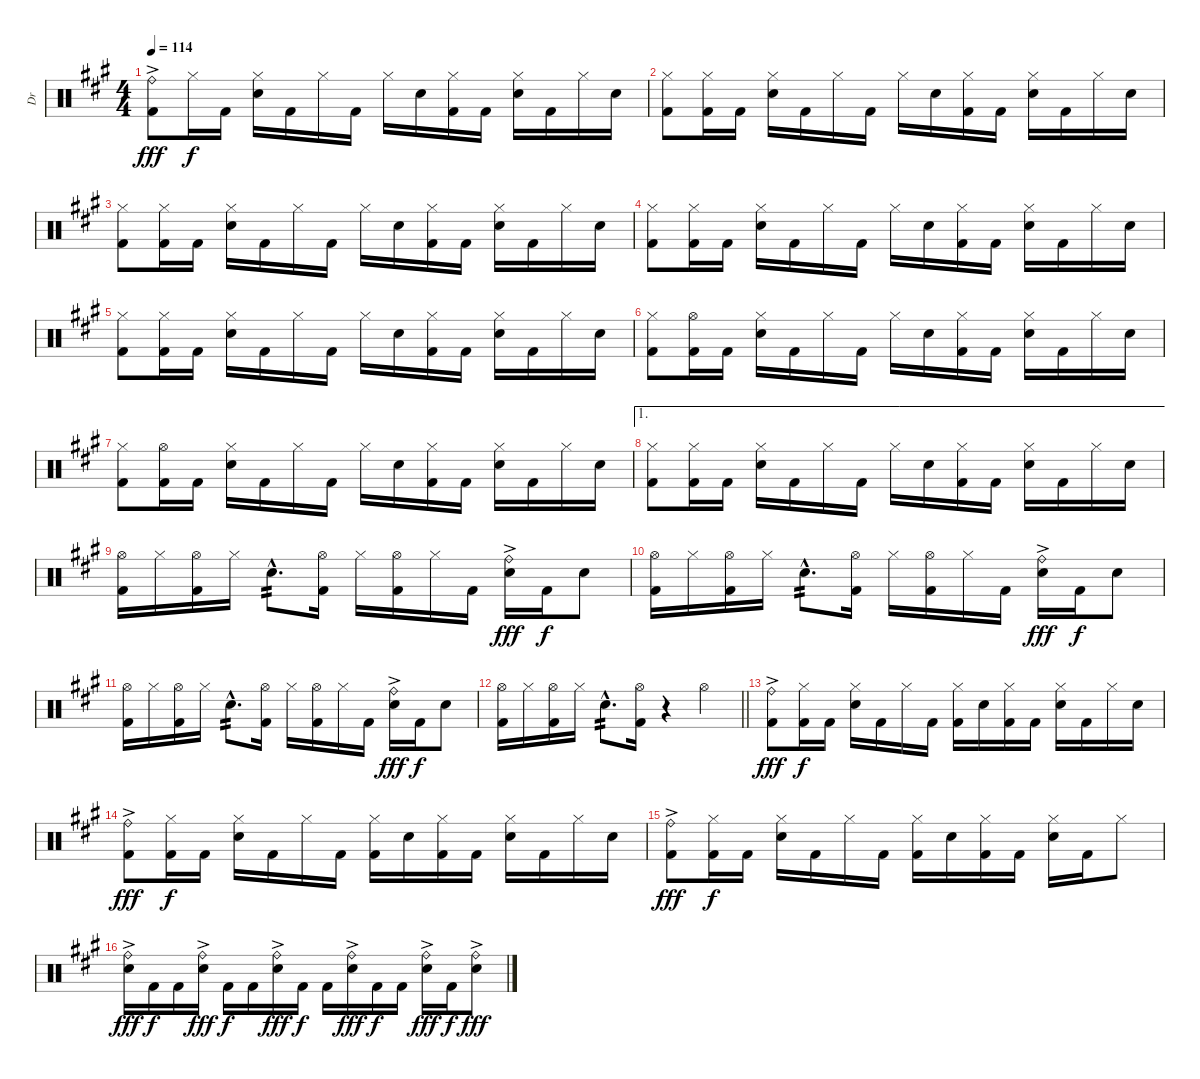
\track ("Dr" "Dr") {instrument percussion}
\staff {score}
\articulation defaults
\ts (4 4)
\tempo 114
\clef neutral
\ks a
("Ride (bell)"{ac} "Kick (hit) 2"{ac}).8{dy fff} "Hi-Hat (closed)".16{dy f} "Kick (hit) 2".16 ("Hi-Hat (closed)" "Electric Snare (hit)").16 "Kick (hit) 2".16 "Hi-Hat (closed)".16 "Kick (hit) 2".16 "Hi-Hat (closed)".16 "Electric Snare (hit)".16 ("Hi-Hat (closed)" "Kick (hit) 2").16 "Kick (hit) 2".16 ("Hi-Hat (closed)" "Electric Snare (hit)").16 "Kick (hit) 2".16 "Hi-Hat (closed)".16 "Electric Snare (hit)".16 |
("Hi-Hat (closed)" "Kick (hit) 2").8 ("Hi-Hat (closed)" "Kick (hit) 2").16 "Kick (hit) 2".16 ("Hi-Hat (closed)" "Electric Snare (hit)").16 "Kick (hit) 2".16 "Hi-Hat (closed)".16 "Kick (hit) 2".16 "Hi-Hat (closed)".16 "Electric Snare (hit)".16 ("Hi-Hat (closed)" "Kick (hit) 2").16 "Kick (hit) 2".16 ("Hi-Hat (closed)" "Electric Snare (hit)").16 "Kick (hit) 2".16 "Hi-Hat (closed)".16 "Electric Snare (hit)".16 |
("Hi-Hat (closed)" "Kick (hit) 2").8 ("Hi-Hat (closed)" "Kick (hit) 2").16 "Kick (hit) 2".16 ("Hi-Hat (closed)" "Electric Snare (hit)").16 "Kick (hit) 2".16 "Hi-Hat (closed)".16 "Kick (hit) 2".16 "Hi-Hat (closed)".16 "Electric Snare (hit)".16 ("Hi-Hat (closed)" "Kick (hit) 2").16 "Kick (hit) 2".16 ("Hi-Hat (closed)" "Electric Snare (hit)").16 "Kick (hit) 2".16 "Hi-Hat (closed)".16 "Electric Snare (hit)".16 |
("Hi-Hat (closed)" "Kick (hit) 2").8 ("Hi-Hat (closed)" "Kick (hit) 2").16 "Kick (hit) 2".16 ("Hi-Hat (closed)" "Electric Snare (hit)").16 "Kick (hit) 2".16 "Hi-Hat (closed)".16 "Kick (hit) 2".16 "Hi-Hat (closed)".16 "Electric Snare (hit)".16 ("Hi-Hat (closed)" "Kick (hit) 2").16 "Kick (hit) 2".16 ("Hi-Hat (closed)" "Electric Snare (hit)").16 "Kick (hit) 2".16 "Hi-Hat (closed)".16 "Electric Snare (hit)".16 |
("Hi-Hat (closed)" "Kick (hit) 2").8 ("Hi-Hat (closed)" "Kick (hit) 2").16 "Kick (hit) 2".16 ("Hi-Hat (closed)" "Electric Snare (hit)").16 "Kick (hit) 2".16 "Hi-Hat (closed)".16 "Kick (hit) 2".16 "Hi-Hat (closed)".16 "Electric Snare (hit)".16 ("Hi-Hat (closed)" "Kick (hit) 2").16 "Kick (hit) 2".16 ("Hi-Hat (closed)" "Electric Snare (hit)").16 "Kick (hit) 2".16 "Hi-Hat (closed)".16 "Electric Snare (hit)".16 |
("Hi-Hat (closed)" "Kick (hit) 2").8 ("Hi-Hat (open)" "Kick (hit) 2").16 "Kick (hit) 2".16 ("Hi-Hat (closed)" "Electric Snare (hit)").16 "Kick (hit) 2".16 "Hi-Hat (closed)".16 "Kick (hit) 2".16 "Hi-Hat (closed)".16 "Electric Snare (hit)".16 ("Hi-Hat (closed)" "Kick (hit) 2").16 "Kick (hit) 2".16 ("Hi-Hat (closed)" "Electric Snare (hit)").16 "Kick (hit) 2".16 "Hi-Hat (closed)".16 "Electric Snare (hit)".16 |
("Hi-Hat (closed)" "Kick (hit) 2").8 ("Hi-Hat (open)" "Kick (hit) 2").16 "Kick (hit) 2".16 ("Hi-Hat (closed)" "Electric Snare (hit)").16 "Kick (hit) 2".16 "Hi-Hat (closed)".16 "Kick (hit) 2".16 "Hi-Hat (closed)".16 "Electric Snare (hit)".16 ("Hi-Hat (closed)" "Kick (hit) 2").16 "Kick (hit) 2".16 ("Hi-Hat (closed)" "Electric Snare (hit)").16 "Kick (hit) 2".16 "Hi-Hat (closed)".16 "Electric Snare (hit)".16 |
\ae 1
("Hi-Hat (closed)" "Kick (hit) 2").8 ("Hi-Hat (closed)" "Kick (hit) 2").16 "Kick (hit) 2".16 ("Hi-Hat (closed)" "Electric Snare (hit)").16 "Kick (hit) 2".16 "Hi-Hat (closed)".16 "Kick (hit) 2".16 "Hi-Hat (closed)".16 "Electric Snare (hit)".16 ("Hi-Hat (closed)" "Kick (hit) 2").16 "Kick (hit) 2".16 ("Hi-Hat (closed)" "Electric Snare (hit)").16 "Kick (hit) 2".16 "Hi-Hat (closed)".16 "Electric Snare (hit)".16 |
("Hi-Hat (open)" "Kick (hit) 2").16 "Hi-Hat (closed)".16 ("Hi-Hat (open)" "Kick (hit) 2").16 "Hi-Hat (closed)".16 "Electric Snare (hit)"{hac}.8{d tp 2} ("Hi-Hat (open)" "Kick (hit) 2").16 "Hi-Hat (closed)".16 ("Hi-Hat (open)" "Kick (hit) 2").16 "Hi-Hat (closed)".16 "Kick (hit) 2".16 ("Ride (bell)"{ac} "Electric Snare (hit)"{ac}).16{dy fff} "Kick (hit) 2".16{dy f} "Electric Snare (hit)".8 |
("Hi-Hat (open)" "Kick (hit) 2").16 "Hi-Hat (closed)".16 ("Hi-Hat (open)" "Kick (hit) 2").16 "Hi-Hat (closed)".16 "Electric Snare (hit)"{hac}.8{d tp 2} ("Hi-Hat (open)" "Kick (hit) 2").16 "Hi-Hat (closed)".16 ("Hi-Hat (open)" "Kick (hit) 2").16 "Hi-Hat (closed)".16 "Kick (hit) 2".16 ("Ride (bell)"{ac} "Electric Snare (hit)"{ac}).16{dy fff} "Kick (hit) 2".16{dy f} "Electric Snare (hit)".8 |
("Hi-Hat (open)" "Kick (hit) 2").16 "Hi-Hat (closed)".16 ("Hi-Hat (open)" "Kick (hit) 2").16 "Hi-Hat (closed)".16 "Electric Snare (hit)"{hac}.8{d tp 2} ("Hi-Hat (open)" "Kick (hit) 2").16 "Hi-Hat (closed)".16 ("Hi-Hat (open)" "Kick (hit) 2").16 "Hi-Hat (closed)".16 "Kick (hit) 2".16 ("Ride (bell)"{ac} "Electric Snare (hit)"{ac}).16{dy fff} "Kick (hit) 2".16{dy f} "Electric Snare (hit)".8 |
\barLineRight lightlight
("Hi-Hat (open)" "Kick (hit) 2").16 "Hi-Hat (closed)".16 ("Hi-Hat (open)" "Kick (hit) 2").16 "Hi-Hat (closed)".16 "Electric Snare (hit)"{hac}.8{d tp 2} ("Hi-Hat (open)" "Kick (hit) 2").16 r.4 "Hi-Hat (open)".4 |
("Ride (bell)"{ac} "Kick (hit) 2"{ac}).8{dy fff} ("Hi-Hat (closed)" "Kick (hit) 2").16{dy f} "Kick (hit) 2".16 ("Hi-Hat (closed)" "Electric Snare (hit)").16 "Kick (hit) 2".16 "Hi-Hat (closed)".16 "Kick (hit) 2".16 ("Hi-Hat (closed)" "Kick (hit) 2").16 "Electric Snare (hit)".16 ("Hi-Hat (closed)" "Kick (hit) 2").16 "Kick (hit) 2".16 ("Hi-Hat (closed)" "Electric Snare (hit)").16 "Kick (hit) 2".16 "Hi-Hat (closed)".16 "Electric Snare (hit)".16 |
("Ride (bell)"{ac} "Kick (hit) 2"{ac}).8{dy fff} ("Hi-Hat (closed)" "Kick (hit) 2").16{dy f} "Kick (hit) 2".16 ("Hi-Hat (closed)" "Electric Snare (hit)").16 "Kick (hit) 2".16 "Hi-Hat (closed)".16 "Kick (hit) 2".16 ("Hi-Hat (closed)" "Kick (hit) 2").16 "Electric Snare (hit)".16 ("Hi-Hat (closed)" "Kick (hit) 2").16 "Kick (hit) 2".16 ("Hi-Hat (closed)" "Electric Snare (hit)").16 "Kick (hit) 2".16 "Hi-Hat (closed)".16 "Electric Snare (hit)".16 |
("Ride (bell)"{ac} "Kick (hit) 2"{ac}).8{dy fff} ("Hi-Hat (closed)" "Kick (hit) 2").16{dy f} "Kick (hit) 2".16 ("Hi-Hat (closed)" "Electric Snare (hit)").16 "Kick (hit) 2".16 "Hi-Hat (closed)".16 "Kick (hit) 2".16 ("Hi-Hat (closed)" "Kick (hit) 2").16 "Electric Snare (hit)".16 ("Hi-Hat (closed)" "Kick (hit) 2").16 "Kick (hit) 2".16 ("Hi-Hat (closed)" "Electric Snare (hit)").16 "Kick (hit) 2".16 "Hi-Hat (closed)".8 |
("Ride (bell)"{ac} "Electric Snare (hit)"{ac}).16{dy fff} "Kick (hit) 2".16{dy f} "Kick (hit) 2".16 ("Ride (bell)"{ac} "Electric Snare (hit)"{ac}).16{dy fff} "Kick (hit) 2".16{dy f} "Kick (hit) 2".16 ("Ride (bell)"{ac} "Electric Snare (hit)"{ac}).16{dy fff} "Kick (hit) 2".16{dy f} "Kick (hit) 2".16 ("Ride (bell)"{ac} "Electric Snare (hit)"{ac}).16{dy fff} "Kick (hit) 2".16{dy f} "Kick (hit) 2".16 ("Ride (bell)"{ac} "Electric Snare (hit)"{ac}).16{dy fff} "Kick (hit) 2".16{dy f} ("Ride (bell)"{ac} "Electric Snare (hit)"{ac}).8{dy fff}
